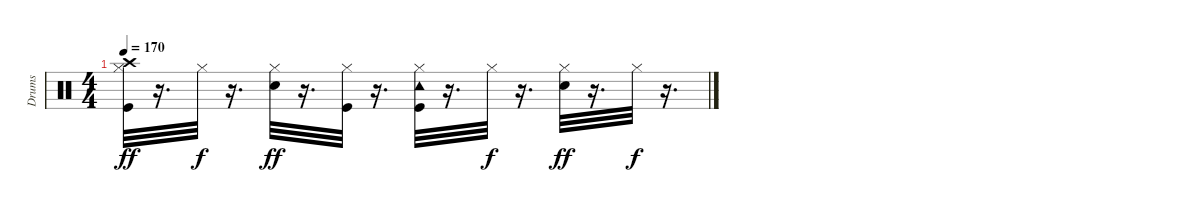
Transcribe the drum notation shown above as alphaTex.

\track ("Drums" "Drums") {instrument percussion}
\staff {score}
\articulation defaults
\ts (4 4)
\tempo 170
\clef neutral
\ks c
("Kick (hit)" "Crash high (hit)" "Hi-Hat (closed)").32{dy ff} r.16{d} "Hi-Hat (closed)".32{dy f} r.16{d} ("Snare (hit) 2" "Hi-Hat (closed)").32{dy ff} r.16{d} ("Hi-Hat (closed)" "Kick (hit)").32 r.16{d} ("Kick (hit)" "Tambourine (hit)" "Hi-Hat (closed)").32 r.16{d} "Hi-Hat (closed)".32{dy f} r.16{d} ("Snare (hit) 2" "Hi-Hat (closed)").32{dy ff} r.16{d} "Hi-Hat (closed)".32{dy f} r.16{d}
